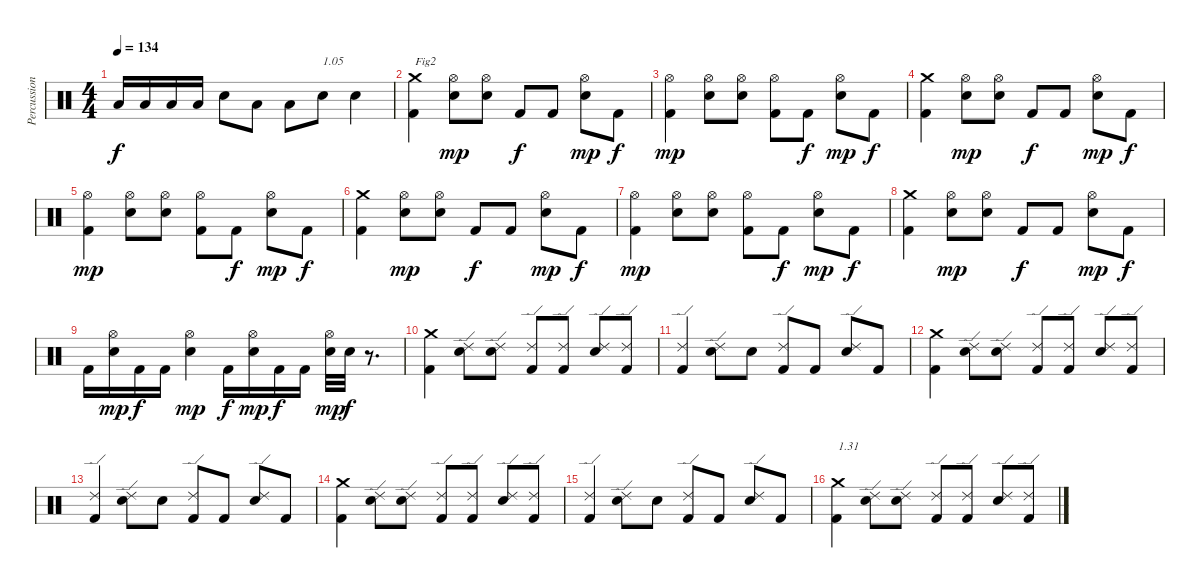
\track ("Percussions" "Percussion") {instrument percussion}
\staff {score}
\articulation defaults
\ts (4 4)
\tempo 134
\clef neutral
\ks c "Low Floor Tom (hit)".16{dy f} "Low Floor Tom (hit)".16 "Low Floor Tom (hit)".16 "Low Floor Tom (hit)".16 "Electric Snare (hit)".8 "Low Floor Tom (hit)".8 "Low Floor Tom (hit)".8 "Electric Snare (hit)".8{txt "1.05"} "Electric Snare (hit)".4
|
("Kick (hit) 2" "Crash medium (hit)").4{txt "Fig2"} ("Electric Snare (hit)" "Hi-Hat (open)").8{dy mp} ("Electric Snare (hit)" "Hi-Hat (open)").8 "Kick (hit) 2".8{dy f} "Kick (hit) 2".8 ("Electric Snare (hit)" "Hi-Hat (open)").8{dy mp} "Kick (hit) 2".8{dy f} |
("Kick (hit) 2" "Hi-Hat (open)").4{dy mp} ("Electric Snare (hit)" "Hi-Hat (open)").8 ("Electric Snare (hit)" "Hi-Hat (open)").8 ("Kick (hit) 2" "Hi-Hat (open)").8 "Kick (hit) 2".8{dy f} ("Electric Snare (hit)" "Hi-Hat (open)").8{dy mp} "Kick (hit) 2".8{dy f} |
("Kick (hit) 2" "Crash medium (hit)").4 ("Electric Snare (hit)" "Hi-Hat (open)").8{dy mp} ("Electric Snare (hit)" "Hi-Hat (open)").8 "Kick (hit) 2".8{dy f} "Kick (hit) 2".8 ("Electric Snare (hit)" "Hi-Hat (open)").8{dy mp} "Kick (hit) 2".8{dy f} |
("Kick (hit) 2" "Hi-Hat (open)").4{dy mp} ("Electric Snare (hit)" "Hi-Hat (open)").8 ("Electric Snare (hit)" "Hi-Hat (open)").8 ("Kick (hit) 2" "Hi-Hat (open)").8 "Kick (hit) 2".8{dy f} ("Electric Snare (hit)" "Hi-Hat (open)").8{dy mp} "Kick (hit) 2".8{dy f} |
("Kick (hit) 2" "Crash medium (hit)").4 ("Electric Snare (hit)" "Hi-Hat (open)").8{dy mp} ("Electric Snare (hit)" "Hi-Hat (open)").8 "Kick (hit) 2".8{dy f} "Kick (hit) 2".8 ("Electric Snare (hit)" "Hi-Hat (open)").8{dy mp} "Kick (hit) 2".8{dy f} |
("Kick (hit) 2" "Hi-Hat (open)").4{dy mp} ("Electric Snare (hit)" "Hi-Hat (open)").8 ("Electric Snare (hit)" "Hi-Hat (open)").8 ("Kick (hit) 2" "Hi-Hat (open)").8 "Kick (hit) 2".8{dy f} ("Electric Snare (hit)" "Hi-Hat (open)").8{dy mp} "Kick (hit) 2".8{dy f} |
("Kick (hit) 2" "Crash medium (hit)").4 ("Electric Snare (hit)" "Hi-Hat (open)").8{dy mp} ("Electric Snare (hit)" "Hi-Hat (open)").8 "Kick (hit) 2".8{dy f} "Kick (hit) 2".8 ("Electric Snare (hit)" "Hi-Hat (open)").8{dy mp} "Kick (hit) 2".8{dy f} |
"Kick (hit) 2".16 ("Electric Snare (hit)" "Hi-Hat (open)").16{dy mp} "Kick (hit) 2".16{dy f} "Kick (hit) 2".16 ("Electric Snare (hit)" "Hi-Hat (open)").4{dy mp} "Kick (hit) 2".16{dy f} ("Electric Snare (hit)" "Hi-Hat (open)").16{dy mp} "Kick (hit) 2".16{dy f} "Kick (hit) 2".16 ("Electric Snare (hit)" "Hi-Hat (open)").32{dy mp} "Electric Snare (hit)".32{dy f} r.8{d} |
("Kick (hit) 2" "Crash medium (hit)").4 ("Electric Snare (hit)" "Ride (edge) 2").8 ("Electric Snare (hit)" "Ride (edge) 2").8 ("Kick (hit) 2" "Ride (edge) 2").8 ("Kick (hit) 2" "Ride (edge) 2").8 ("Electric Snare (hit)" "Ride (edge) 2").8 ("Kick (hit) 2" "Ride (edge) 2").8 |
("Kick (hit) 2" "Ride (edge) 2").4 ("Electric Snare (hit)" "Ride (edge) 2").8 "Electric Snare (hit)".8 ("Kick (hit) 2" "Ride (edge) 2").8 "Kick (hit) 2".8 ("Electric Snare (hit)" "Ride (edge) 2").8 "Kick (hit) 2".8 |
("Kick (hit) 2" "Crash medium (hit)").4 ("Electric Snare (hit)" "Ride (edge) 2").8 ("Electric Snare (hit)" "Ride (edge) 2").8 ("Kick (hit) 2" "Ride (edge) 2").8 ("Kick (hit) 2" "Ride (edge) 2").8 ("Electric Snare (hit)" "Ride (edge) 2").8 ("Kick (hit) 2" "Ride (edge) 2").8 |
("Kick (hit) 2" "Ride (edge) 2").4 ("Electric Snare (hit)" "Ride (edge) 2").8 "Electric Snare (hit)".8 ("Kick (hit) 2" "Ride (edge) 2").8 "Kick (hit) 2".8 ("Electric Snare (hit)" "Ride (edge) 2").8 "Kick (hit) 2".8 |
("Kick (hit) 2" "Crash medium (hit)").4 ("Electric Snare (hit)" "Ride (edge) 2").8 ("Electric Snare (hit)" "Ride (edge) 2").8 ("Kick (hit) 2" "Ride (edge) 2").8 ("Kick (hit) 2" "Ride (edge) 2").8 ("Electric Snare (hit)" "Ride (edge) 2").8 ("Kick (hit) 2" "Ride (edge) 2").8 |
("Kick (hit) 2" "Ride (edge) 2").4 ("Electric Snare (hit)" "Ride (edge) 2").8 "Electric Snare (hit)".8 ("Kick (hit) 2" "Ride (edge) 2").8 "Kick (hit) 2".8 ("Electric Snare (hit)" "Ride (edge) 2").8 "Kick (hit) 2".8 |
("Kick (hit) 2" "Crash medium (hit)").4{txt "1.31"} ("Electric Snare (hit)" "Ride (edge) 2").8 ("Electric Snare (hit)" "Ride (edge) 2").8 ("Kick (hit) 2" "Ride (edge) 2").8 ("Kick (hit) 2" "Ride (edge) 2").8 ("Electric Snare (hit)" "Ride (edge) 2").8 ("Kick (hit) 2" "Ride (edge) 2").8
